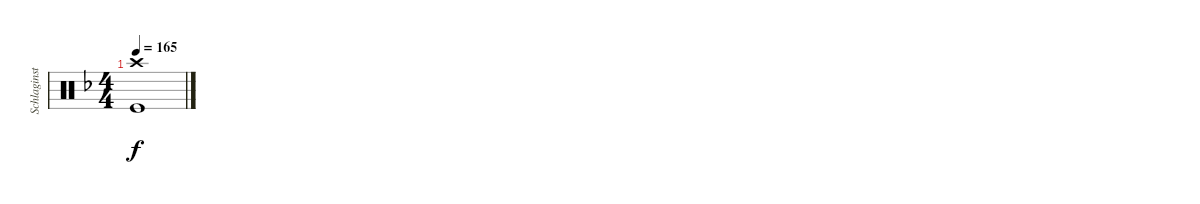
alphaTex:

\track ("Schlaginstrumente - Auswahl" "Schlaginst") {instrument percussion}
\staff {score}
\articulation defaults
\ts (4 4)
\tempo 165
\clef neutral
\ks f
("Crash high (hit)" "Kick (hit)").1{dy f}
